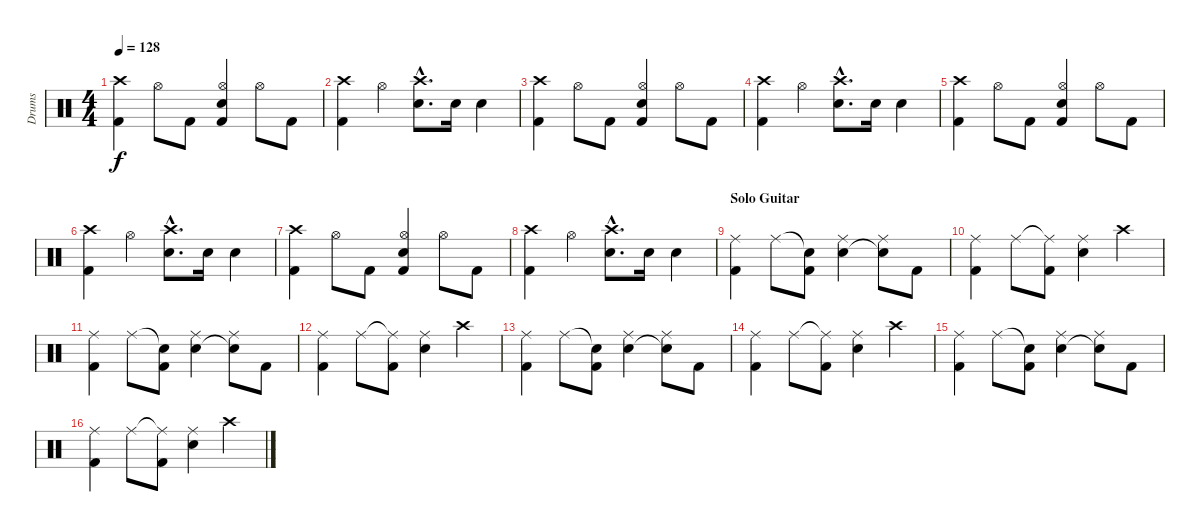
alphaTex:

\track ("Drums" "Drums") {instrument percussion}
\staff {score}
\articulation defaults
\ts (4 4)
\tempo 128
\clef neutral
\ks c
("Crash high (hit)" "Kick (hit) 2").4{dy f} "Hi-Hat (open)".8 "Kick (hit) 2".8 ("Hi-Hat (open)" "Kick (hit) 2" "Snare (hit) 2").4 "Hi-Hat (open)".8 "Kick (hit) 2".8 |
("Crash high (hit)" "Kick (hit) 2").4 "Hi-Hat (open)".4 ("Crash high (hit)"{hac} "Snare (hit) 2"{hac}).8{d} "Snare (hit) 2".16 "Snare (hit) 2".4 |
("Crash high (hit)" "Kick (hit) 2").4 "Hi-Hat (open)".8 "Kick (hit) 2".8 ("Hi-Hat (open)" "Kick (hit) 2" "Snare (hit) 2").4 "Hi-Hat (open)".8 "Kick (hit) 2".8 |
("Crash high (hit)" "Kick (hit) 2").4 "Hi-Hat (open)".4 ("Crash high (hit)"{hac} "Snare (hit) 2"{hac}).8{d} "Snare (hit) 2".16 "Snare (hit) 2".4 |
("Crash high (hit)" "Kick (hit) 2").4 "Hi-Hat (open)".8 "Kick (hit) 2".8 ("Hi-Hat (open)" "Kick (hit) 2" "Snare (hit) 2").4 "Hi-Hat (open)".8 "Kick (hit) 2".8 |
("Crash high (hit)" "Kick (hit) 2").4 "Hi-Hat (open)".4 ("Crash high (hit)"{hac} "Snare (hit) 2"{hac}).8{d} "Snare (hit) 2".16 "Snare (hit) 2".4 |
("Crash high (hit)" "Kick (hit) 2").4 "Hi-Hat (open)".8 "Kick (hit) 2".8 ("Hi-Hat (open)" "Kick (hit) 2" "Snare (hit) 2").4 "Hi-Hat (open)".8 "Kick (hit) 2".8 |
("Crash high (hit)" "Kick (hit) 2").4 "Hi-Hat (open)".4 ("Crash high (hit)"{hac} "Snare (hit) 2"{hac}).8{d} "Snare (hit) 2".16 "Snare (hit) 2".4 |
\section ("" "Solo Guitar")
("Ride (middle)" "Kick (hit) 2").4 "Ride (middle)".8 ("Snare (hit)"{t} "Kick (hit) 2").8 ("Ride (middle)" "Snare (hit) 2").4 ("Ride (middle)" "Snare (hit)"{t}).8 "Kick (hit) 2".8 |
("Ride (middle)" "Kick (hit) 2").4 "Ride (middle)".8 ("Ride (middle)"{t} "Kick (hit) 2").8 ("Ride (middle)" "Snare (hit) 2").4 "Crash high (hit)".4 |
("Ride (middle)" "Kick (hit) 2").4 "Ride (middle)".8 ("Snare (hit)"{t} "Kick (hit) 2").8 ("Ride (middle)" "Snare (hit) 2").4 ("Ride (middle)" "Snare (hit)"{t}).8 "Kick (hit) 2".8 |
("Ride (middle)" "Kick (hit) 2").4 "Ride (middle)".8 ("Ride (middle)"{t} "Kick (hit) 2").8 ("Ride (middle)" "Snare (hit) 2").4 "Crash high (hit)".4 |
("Ride (middle)" "Kick (hit) 2").4 "Ride (middle)".8 ("Snare (hit)"{t} "Kick (hit) 2").8 ("Ride (middle)" "Snare (hit) 2").4 ("Ride (middle)" "Snare (hit)"{t}).8 "Kick (hit) 2".8 |
("Ride (middle)" "Kick (hit) 2").4 "Ride (middle)".8 ("Ride (middle)"{t} "Kick (hit) 2").8 ("Ride (middle)" "Snare (hit) 2").4 "Crash high (hit)".4 |
("Ride (middle)" "Kick (hit) 2").4 "Ride (middle)".8 ("Snare (hit)"{t} "Kick (hit) 2").8 ("Ride (middle)" "Snare (hit) 2").4 ("Ride (middle)" "Snare (hit)"{t}).8 "Kick (hit) 2".8 |
("Ride (middle)" "Kick (hit) 2").4 "Ride (middle)".8 ("Ride (middle)"{t} "Kick (hit) 2").8 ("Ride (middle)" "Snare (hit) 2").4 "Crash high (hit)".4
